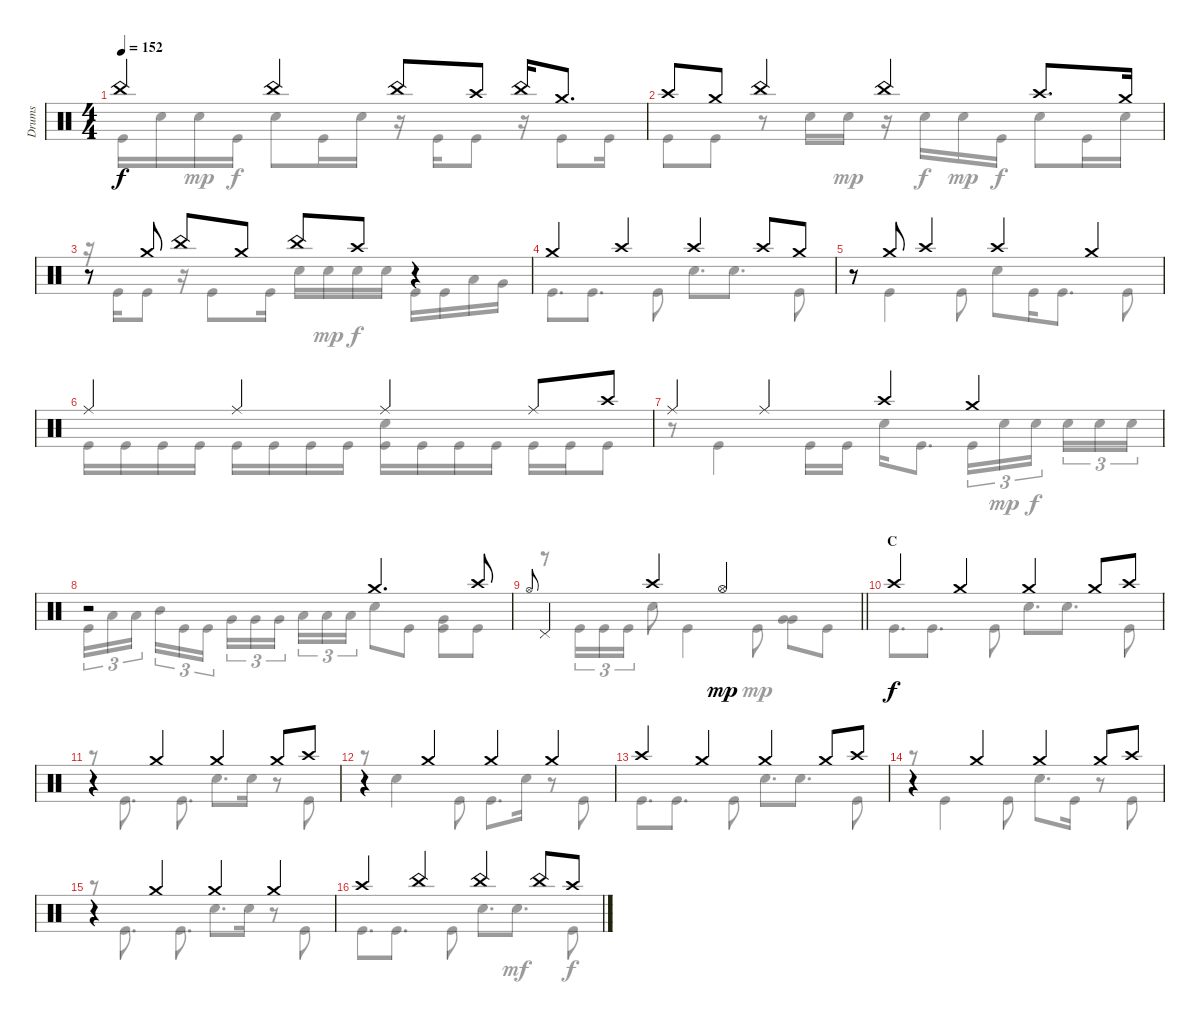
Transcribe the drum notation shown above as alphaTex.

\track ("Drums" "Drums") {instrument percussion}
\staff {score}
\articulation defaults
\voice
\ts (4 4)
\tempo 152
\clef neutral
\ks c "China (hit)".4{dy f} "China (hit)".4 "China (hit)".8 "Crash high (hit)".8 "China (hit)".16 "Crash medium (hit)".8{d}
|
"Crash high (hit)".8 "Crash medium (hit)".8 "China (hit)".4 "China (hit)".4 "Crash high (hit)".8{d} "Crash medium (hit)".16 |
r.8 "Crash medium (hit)".8 "China (hit)".8 "Crash medium (hit)".8 "China (hit)".8 "Crash high (hit)".8 r.4 |
"Crash medium (hit)".4 "Crash high (hit)".4 "Crash high (hit)".4 "Crash high (hit)".8 "Crash medium (hit)".8 |
r.8 "Crash medium (hit)".8 "Crash high (hit)".4 "Crash high (hit)".4 "Crash medium (hit)".4 |
"Ride (middle)".4 "Ride (middle)".4 "Ride (middle)".4 "Ride (middle)".8 "Crash high (hit)".8 |
"Ride (middle)".4 "Ride (middle)".4 "Crash high (hit)".4 "Crash medium (hit)".4 |
r.2 "Crash medium (hit)".4{d} "Crash high (hit)".8 |
\barLineRight lightlight "Hi-Hat (open)".8{gr onbeat} "Pedal Hi-Hat (hit)".4 "Crash high (hit)".4 "Hi-Hat (open)".2{dy mp}
|
\section ("" "C")
"Crash high (hit)".4{dy f} "Crash medium (hit)".4 "Crash medium (hit)".4 "Crash medium (hit)".8 "Crash high (hit)".8 |
r.4 "Crash medium (hit)".4 "Crash medium (hit)".4 "Crash medium (hit)".8 "Crash high (hit)".8 |
r.4 "Crash medium (hit)".4 "Crash medium (hit)".4 "Crash medium (hit)".4 |
"Crash high (hit)".4 "Crash medium (hit)".4 "Crash medium (hit)".4 "Crash medium (hit)".8 "Crash high (hit)".8 |
r.4 "Crash medium (hit)".4 "Crash medium (hit)".4 "Crash medium (hit)".8 "Crash high (hit)".8 |
r.4 "Crash medium (hit)".4 "Crash medium (hit)".4 "Crash medium (hit)".4 |
"Crash high (hit)".4 "China (hit)".4 "China (hit)".4 "China (hit)".8 "Crash high (hit)".8
\voice
\clef neutral
\ottava regular
\simile none
\ks c "Kick (hit)".16{dy f} "Snare (hit) 2".16 "Snare (hit) 2".16{dy mp} "Kick (hit)".16{dy f} "Snare (hit) 2".8 "Kick (hit)".16 "Snare (hit) 2".16
r.16 "Kick (hit)".16 "Kick (hit)".8 r.16 "Kick (hit)".8 "Kick (hit)".16 |
"Kick (hit)".8 "Kick (hit)".8 r.8 "Snare (hit) 2".16 "Snare (hit) 2".16{dy mp} r.16 "Snare (hit) 2".16{dy f} "Snare (hit) 2".16{dy mp} "Kick (hit)".16{dy f} "Snare (hit) 2".8 "Kick (hit)".16 "Snare (hit) 2".16 |
r.16 "Kick (hit)".16 "Kick (hit)".8 r.16 "Kick (hit)".8 "Kick (hit)".16 "Snare (hit) 2".16 "Snare (hit) 2".16{dy mp} "Snare (hit) 2".16{dy f} "Snare (hit) 2".16 "Kick (hit)".16 "Kick (hit)".16 "Low Tom (hit)".16 "Very Low Tom (hit)".16 |
"Kick (hit)".8{d} "Kick (hit)".8{d} "Kick (hit)".8 "Snare (hit) 2".8{d} "Snare (hit) 2".8{d} "Kick (hit)".8 |
r.8 "Kick (hit)".4 "Kick (hit)".8 "Snare (hit) 2".8 "Kick (hit)".16 "Kick (hit)".8{d} "Kick (hit)".8 |
"Kick (hit)".16 "Kick (hit)".16 "Kick (hit)".16 "Kick (hit)".16 "Kick (hit)".16 "Kick (hit)".16 "Kick (hit)".16 "Kick (hit)".16 ("Snare (hit) 2" "Kick (hit)").16 "Kick (hit)".16 "Kick (hit)".16 "Kick (hit)".16 "Kick (hit)".16 "Kick (hit)".16 "Kick (hit)".8 |
r.8 "Kick (hit)".4 "Kick (hit)".16 "Kick (hit)".16 "Snare (hit) 2".16 "Kick (hit)".8{d} "Kick (hit)".16{tu (3 2)} "Snare (hit) 2".16{tu (3 2) dy mp} "Snare (hit) 2".16{tu (3 2) dy f beam splitsecondary} "Snare (hit) 2".16{tu (3 2)} "Snare (hit) 2".16{tu (3 2)} "Snare (hit) 2".16{tu (3 2)} |
"Kick (hit)".16{tu (3 2)} "Low Tom (hit)".16{tu (3 2)} "Low Tom (hit)".16{tu (3 2) beam splitsecondary} "Mid Tom (hit)".16{tu (3 2)} "Kick (hit)".16{tu (3 2)} "Kick (hit)".16{tu (3 2)} "Very Low Tom (hit)".16{tu (3 2)} "Very Low Tom (hit)".16{tu (3 2)} "Very Low Tom (hit)".16{tu (3 2) beam splitsecondary} "Low Tom (hit)".16{tu (3 2)} "Low Tom (hit)".16{tu (3 2)} "Low Tom (hit)".16{tu (3 2)} "Snare (hit) 2".8 "Kick (hit)".8 ("Very Low Tom (hit)" "Kick (hit)").8 "Kick (hit)".8 |
\barLineRight lightlight
r.8 "Kick (hit)".16{tu (3 2)} "Kick (hit)".16{tu (3 2)} "Kick (hit)".16{tu (3 2)} "Snare (hit) 2".8 "Kick (hit)".4 "Kick (hit)".8{dy mp} ("Very Low Tom (hit)" "Very Low Tom (hit)").8 "Kick (hit)".8 |
"Kick (hit)".8{d dy f} "Kick (hit)".8{d} "Kick (hit)".8 "Snare (hit) 2".8{d} "Snare (hit) 2".8{d} "Kick (hit)".8 |
r.8 "Kick (hit)".8{d} "Kick (hit)".8{d} "Snare (hit) 2".8{d} "Snare (hit) 2".16 r.8 "Kick (hit)".8 |
r.8 "Snare (hit) 2".4 "Kick (hit)".8 "Kick (hit)".8{d} "Snare (hit) 2".16 r.8 "Kick (hit)".8 |
"Kick (hit)".8{d} "Kick (hit)".8{d} "Kick (hit)".8 "Snare (hit) 2".8{d} "Snare (hit) 2".8{d} "Kick (hit)".8 |
r.8 "Kick (hit)".4 "Kick (hit)".8 "Snare (hit) 2".8{d} "Kick (hit)".16 r.8 "Kick (hit)".8 |
r.8 "Kick (hit)".8{d} "Kick (hit)".8{d} "Snare (hit) 2".8{d} "Snare (hit) 2".16 r.8 "Kick (hit)".8 |
"Kick (hit)".8{d} "Kick (hit)".8{d} "Kick (hit)".8 "Snare (hit) 2".8{d} "Snare (hit) 2".8{d dy mf} "Kick (hit)".8{dy f}
